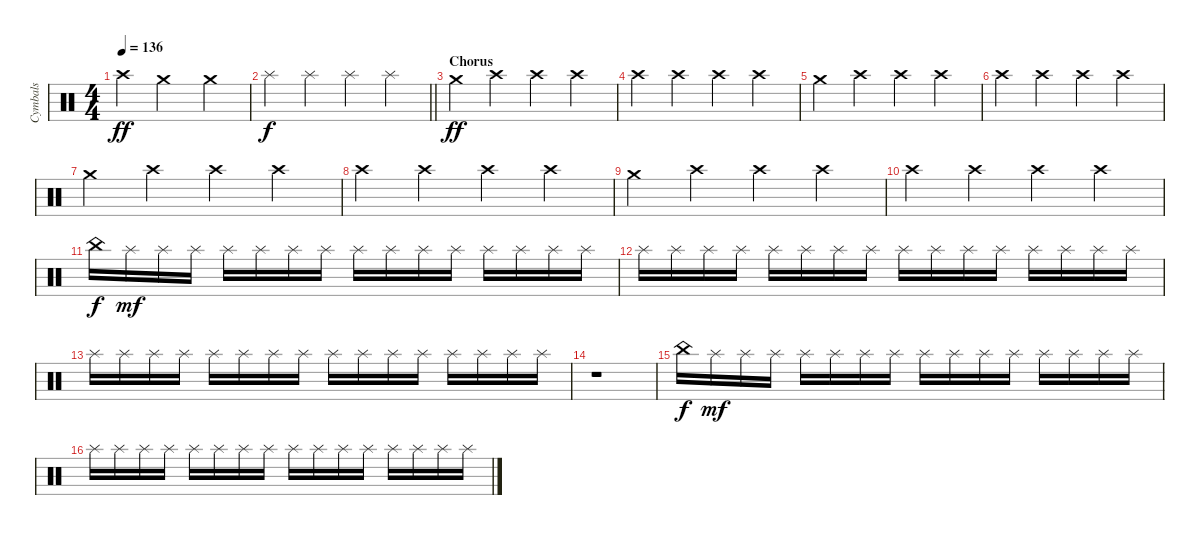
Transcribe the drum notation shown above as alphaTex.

\track ("Cymbals" "Cymbals") {instrument percussion}
\staff {score}
\articulation defaults
\ts (4 4)
\tempo 136
\clef neutral
\ks c "Crash high (hit)".4{dy ff} "Crash medium (hit)".2 "Crash medium (hit)".4
|
\barLineRight lightlight "Splash (hit)".4{dy f} "Splash (hit)".4 "Splash (hit)".4 "Splash (hit)".4
|
\section ("" "Chorus")
"Crash medium (hit)".4{dy ff} "Crash high (hit)".4 "Crash high (hit)".4 "Crash high (hit)".4 |
"Crash high (hit)".4 "Crash high (hit)".4 "Crash high (hit)".4 "Crash high (hit)".4 |
"Crash medium (hit)".4 "Crash high (hit)".4 "Crash high (hit)".4 "Crash high (hit)".4 |
"Crash high (hit)".4 "Crash high (hit)".4 "Crash high (hit)".4 "Crash high (hit)".4 |
"Crash medium (hit)".4 "Crash high (hit)".4 "Crash high (hit)".4 "Crash high (hit)".4 |
"Crash high (hit)".4 "Crash high (hit)".4 "Crash high (hit)".4 "Crash high (hit)".4 |
"Crash medium (hit)".4 "Crash high (hit)".4 "Crash high (hit)".4 "Crash high (hit)".4 |
"Crash high (hit)".4 "Crash high (hit)".4 "Crash high (hit)".4 "Crash high (hit)".4 |
"China (hit)".16{dy f} "Splash (hit)".16{dy mf} "Splash (hit)".16 "Splash (hit)".16 "Splash (hit)".16 "Splash (hit)".16 "Splash (hit)".16 "Splash (hit)".16 "Splash (hit)".16 "Splash (hit)".16 "Splash (hit)".16 "Splash (hit)".16 "Splash (hit)".16 "Splash (hit)".16 "Splash (hit)".16 "Splash (hit)".16 |
"Splash (hit)".16 "Splash (hit)".16 "Splash (hit)".16 "Splash (hit)".16 "Splash (hit)".16 "Splash (hit)".16 "Splash (hit)".16 "Splash (hit)".16 "Splash (hit)".16 "Splash (hit)".16 "Splash (hit)".16 "Splash (hit)".16 "Splash (hit)".16 "Splash (hit)".16 "Splash (hit)".16 "Splash (hit)".16 |
"Splash (hit)".16 "Splash (hit)".16 "Splash (hit)".16 "Splash (hit)".16 "Splash (hit)".16 "Splash (hit)".16 "Splash (hit)".16 "Splash (hit)".16 "Splash (hit)".16 "Splash (hit)".16 "Splash (hit)".16 "Splash (hit)".16 "Splash (hit)".16 "Splash (hit)".16 "Splash (hit)".16 "Splash (hit)".16 |
r.1 |
"China (hit)".16{dy f} "Splash (hit)".16{dy mf} "Splash (hit)".16 "Splash (hit)".16 "Splash (hit)".16 "Splash (hit)".16 "Splash (hit)".16 "Splash (hit)".16 "Splash (hit)".16 "Splash (hit)".16 "Splash (hit)".16 "Splash (hit)".16 "Splash (hit)".16 "Splash (hit)".16 "Splash (hit)".16 "Splash (hit)".16 |
"Splash (hit)".16 "Splash (hit)".16 "Splash (hit)".16 "Splash (hit)".16 "Splash (hit)".16 "Splash (hit)".16 "Splash (hit)".16 "Splash (hit)".16 "Splash (hit)".16 "Splash (hit)".16 "Splash (hit)".16 "Splash (hit)".16 "Splash (hit)".16 "Splash (hit)".16 "Splash (hit)".16 "Splash (hit)".16
